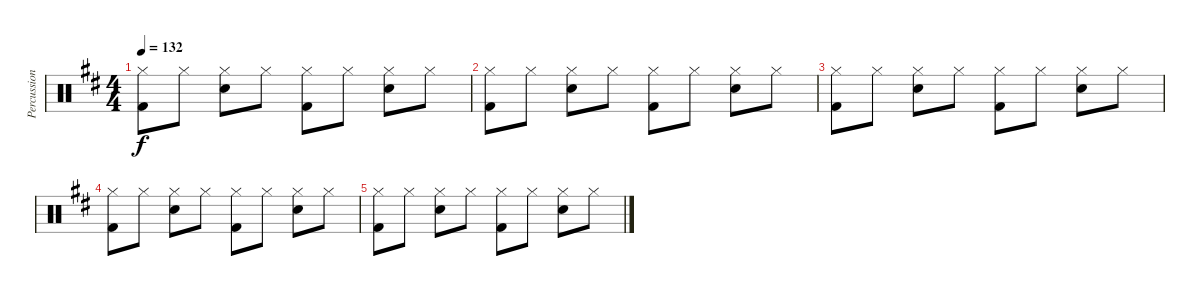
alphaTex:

\track ("Percussion" "Percussion") {instrument percussion}
\staff {score}
\articulation defaults
\ts (4 4)
\tempo 132
\clef neutral
\ks d
("Hi-Hat (closed)" "Kick (hit) 2").8{dy f} "Hi-Hat (closed)".8 ("Hi-Hat (closed)" "Electric Snare (hit)").8 "Hi-Hat (closed)".8 ("Hi-Hat (closed)" "Kick (hit) 2").8 "Hi-Hat (closed)".8 ("Hi-Hat (closed)" "Electric Snare (hit)").8 "Hi-Hat (closed)".8 |
("Hi-Hat (closed)" "Kick (hit) 2").8 "Hi-Hat (closed)".8 ("Hi-Hat (closed)" "Electric Snare (hit)").8 "Hi-Hat (closed)".8 ("Hi-Hat (closed)" "Kick (hit) 2").8 "Hi-Hat (closed)".8 ("Hi-Hat (closed)" "Electric Snare (hit)").8 "Hi-Hat (closed)".8 |
("Hi-Hat (closed)" "Kick (hit) 2").8 "Hi-Hat (closed)".8 ("Hi-Hat (closed)" "Electric Snare (hit)").8 "Hi-Hat (closed)".8 ("Hi-Hat (closed)" "Kick (hit) 2").8 "Hi-Hat (closed)".8 ("Hi-Hat (closed)" "Electric Snare (hit)").8 "Hi-Hat (closed)".8 |
("Hi-Hat (closed)" "Kick (hit) 2").8 "Hi-Hat (closed)".8 ("Hi-Hat (closed)" "Electric Snare (hit)").8 "Hi-Hat (closed)".8 ("Hi-Hat (closed)" "Kick (hit) 2").8 "Hi-Hat (closed)".8 ("Hi-Hat (closed)" "Electric Snare (hit)").8 "Hi-Hat (closed)".8 |
("Hi-Hat (closed)" "Kick (hit) 2").8 "Hi-Hat (closed)".8 ("Hi-Hat (closed)" "Electric Snare (hit)").8 "Hi-Hat (closed)".8 ("Hi-Hat (closed)" "Kick (hit) 2").8 "Hi-Hat (closed)".8 ("Hi-Hat (closed)" "Electric Snare (hit)").8 "Hi-Hat (closed)".8
